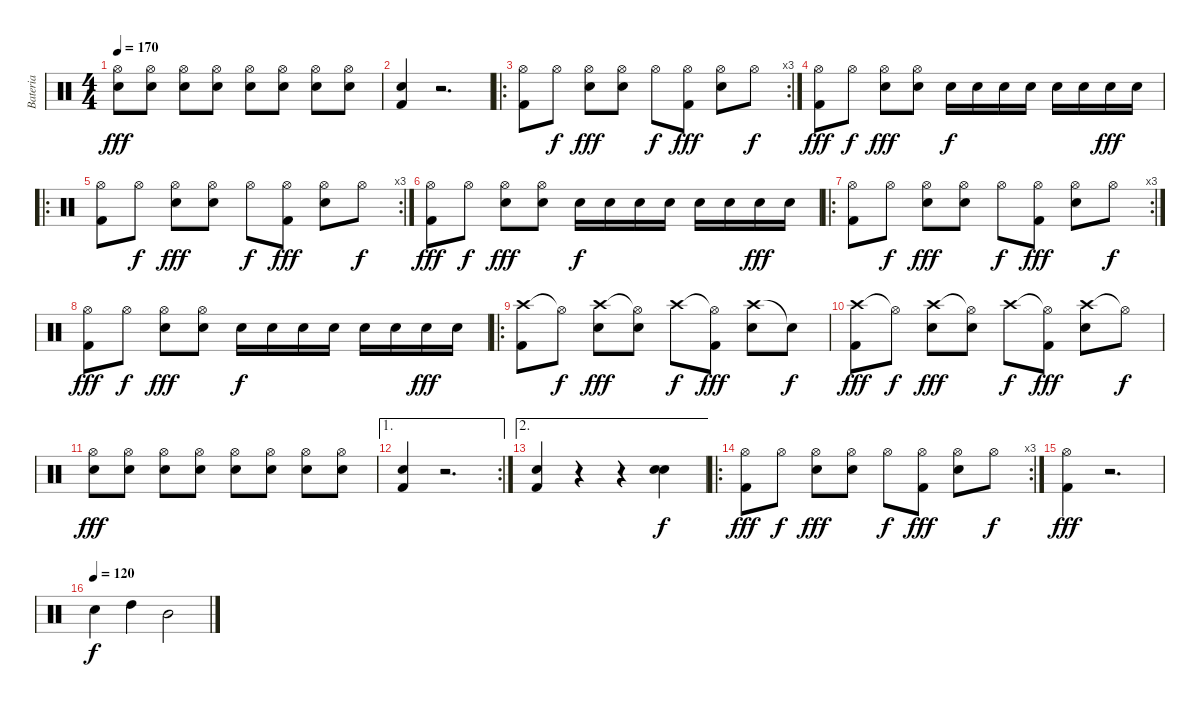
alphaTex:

\track ("Bateria" "Bateria") {instrument percussion bank 1}
\staff {score}
\articulation defaults
\ts (4 4)
\tempo 170
\clef neutral
\ks c
("Hi-Hat (open)" "Electric Snare (hit)").8{dy fff} ("Hi-Hat (open)" "Electric Snare (hit)").8 ("Hi-Hat (open)" "Electric Snare (hit)").8 ("Hi-Hat (open)" "Electric Snare (hit)").8 ("Hi-Hat (open)" "Electric Snare (hit)").8 ("Hi-Hat (open)" "Electric Snare (hit)").8 ("Hi-Hat (open)" "Electric Snare (hit)").8 ("Hi-Hat (open)" "Electric Snare (hit)").8 |
("Electric Snare (hit)" "Kick (hit) 2").4 r.2{d} |
\ro
\rc 3
("Hi-Hat (open)" "Kick (hit) 2").8 "Hi-Hat (open)".8{dy f} ("Hi-Hat (open)" "Electric Snare (hit)").8{dy fff} ("Hi-Hat (open)" "Electric Snare (hit)").8 "Hi-Hat (open)".8{dy f} ("Hi-Hat (open)" "Kick (hit) 2").8{dy fff} ("Hi-Hat (open)" "Electric Snare (hit)").8 "Hi-Hat (open)".8{dy f} |
("Hi-Hat (open)" "Kick (hit) 2").8{dy fff} "Hi-Hat (open)".8{dy f} ("Hi-Hat (open)" "Electric Snare (hit)").8{dy fff} ("Hi-Hat (open)" "Electric Snare (hit)").8 "Electric Snare (hit)".16{dy f} "Electric Snare (hit)".16 "Electric Snare (hit)".16 "Electric Snare (hit)".16 "Electric Snare (hit)".16 "Electric Snare (hit)".16 "Electric Snare (hit)".16{dy fff} "Electric Snare (hit)".16 |
\ro
\rc 3
("Hi-Hat (open)" "Kick (hit) 2").8 "Hi-Hat (open)".8{dy f} ("Hi-Hat (open)" "Electric Snare (hit)").8{dy fff} ("Hi-Hat (open)" "Electric Snare (hit)").8 "Hi-Hat (open)".8{dy f} ("Hi-Hat (open)" "Kick (hit) 2").8{dy fff} ("Hi-Hat (open)" "Electric Snare (hit)").8 "Hi-Hat (open)".8{dy f} |
("Hi-Hat (open)" "Kick (hit) 2").8{dy fff} "Hi-Hat (open)".8{dy f} ("Hi-Hat (open)" "Electric Snare (hit)").8{dy fff} ("Hi-Hat (open)" "Electric Snare (hit)").8 "Electric Snare (hit)".16{dy f} "Electric Snare (hit)".16 "Electric Snare (hit)".16 "Electric Snare (hit)".16 "Electric Snare (hit)".16 "Electric Snare (hit)".16 "Electric Snare (hit)".16{dy fff} "Electric Snare (hit)".16 |
\ro
\rc 3
("Hi-Hat (open)" "Kick (hit) 2").8 "Hi-Hat (open)".8{dy f} ("Hi-Hat (open)" "Electric Snare (hit)").8{dy fff} ("Hi-Hat (open)" "Electric Snare (hit)").8 "Hi-Hat (open)".8{dy f} ("Hi-Hat (open)" "Kick (hit) 2").8{dy fff} ("Hi-Hat (open)" "Electric Snare (hit)").8 "Hi-Hat (open)".8{dy f} |
("Hi-Hat (open)" "Kick (hit) 2").8{dy fff} "Hi-Hat (open)".8{dy f} ("Hi-Hat (open)" "Electric Snare (hit)").8{dy fff} ("Hi-Hat (open)" "Electric Snare (hit)").8 "Electric Snare (hit)".16{dy f} "Electric Snare (hit)".16 "Electric Snare (hit)".16 "Electric Snare (hit)".16 "Electric Snare (hit)".16 "Electric Snare (hit)".16 "Electric Snare (hit)".16{dy fff} "Electric Snare (hit)".16 |
\ro
("Crash high (hit)" "Kick (hit) 2").8 "Hi-Hat (open)"{t}.8{dy f} ("Crash high (hit)" "Electric Snare (hit)").8{dy fff} ("Hi-Hat (open)"{t} "Electric Snare (hit)").8 "Crash high (hit)".8{dy f} ("Hi-Hat (open)"{t} "Kick (hit) 2").8{dy fff} ("Crash high (hit)" "Electric Snare (hit)").8 "Snare (hit)"{t}.8{dy f} |
("Crash high (hit)" "Kick (hit) 2").8{dy fff} "Hi-Hat (open)"{t}.8{dy f} ("Crash high (hit)" "Electric Snare (hit)").8{dy fff} ("Hi-Hat (open)"{t} "Electric Snare (hit)").8 "Crash high (hit)".8{dy f} ("Hi-Hat (open)"{t} "Kick (hit) 2").8{dy fff} ("Crash high (hit)" "Electric Snare (hit)").8 "Hi-Hat (open)"{t}.8{dy f} |
("Hi-Hat (open)" "Electric Snare (hit)").8{dy fff} ("Hi-Hat (open)" "Electric Snare (hit)").8 ("Hi-Hat (open)" "Electric Snare (hit)").8 ("Hi-Hat (open)" "Electric Snare (hit)").8 ("Hi-Hat (open)" "Electric Snare (hit)").8 ("Hi-Hat (open)" "Electric Snare (hit)").8 ("Hi-Hat (open)" "Electric Snare (hit)").8 ("Hi-Hat (open)" "Electric Snare (hit)").8 |
\ae 1
\rc 2
("Electric Snare (hit)" "Kick (hit) 2").4 r.2{d} |
\ae 2
("Electric Snare (hit)" "Kick (hit) 2").4 r.4 r.4 ("Electric Snare (hit)" "Electric Snare (hit)").4{dy f} |
\ro
\rc 3
("Hi-Hat (open)" "Kick (hit) 2").8{dy fff} "Hi-Hat (open)".8{dy f} ("Hi-Hat (open)" "Electric Snare (hit)").8{dy fff} ("Hi-Hat (open)" "Electric Snare (hit)").8 "Hi-Hat (open)".8{dy f} ("Hi-Hat (open)" "Kick (hit) 2").8{dy fff} ("Hi-Hat (open)" "Electric Snare (hit)").8 "Hi-Hat (open)".8{dy f} |
("Hi-Hat (open)" "Kick (hit) 2").4{dy fff} r.2{d} |
\tempo (120)
"Electric Snare (hit)".4{dy f} "High Tom (hit)".4 "Mid Tom (hit)".2
